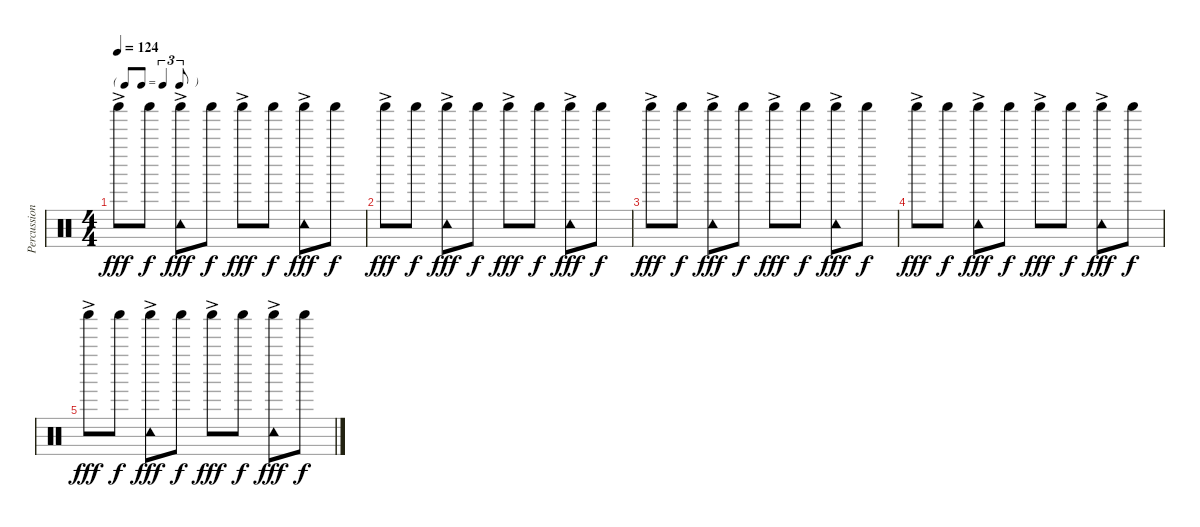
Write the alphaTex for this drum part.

\track ("Percussion" "Percussion") {instrument percussion}
\staff {score}
\articulation defaults
\ts (4 4)
\tf triplet8th
\tempo 124
\clef neutral
\ks c "Shaker (hit)"{ac}.8{dy fff} "Shaker (hit)".8{dy f}
("Tambourine (hit)" "Shaker (hit)"{ac}).8{dy fff} "Shaker (hit)".8{dy f} "Shaker (hit)"{ac}.8{dy fff} "Shaker (hit)".8{dy f} ("Tambourine (hit)" "Shaker (hit)"{ac}).8{dy fff} "Shaker (hit)".8{dy f} |
"Shaker (hit)"{ac}.8{dy fff} "Shaker (hit)".8{dy f} ("Tambourine (hit)" "Shaker (hit)"{ac}).8{dy fff} "Shaker (hit)".8{dy f} "Shaker (hit)"{ac}.8{dy fff} "Shaker (hit)".8{dy f} ("Tambourine (hit)" "Shaker (hit)"{ac}).8{dy fff} "Shaker (hit)".8{dy f} |
"Shaker (hit)"{ac}.8{dy fff} "Shaker (hit)".8{dy f} ("Tambourine (hit)" "Shaker (hit)"{ac}).8{dy fff} "Shaker (hit)".8{dy f} "Shaker (hit)"{ac}.8{dy fff} "Shaker (hit)".8{dy f} ("Tambourine (hit)" "Shaker (hit)"{ac}).8{dy fff} "Shaker (hit)".8{dy f} |
"Shaker (hit)"{ac}.8{dy fff} "Shaker (hit)".8{dy f} ("Tambourine (hit)" "Shaker (hit)"{ac}).8{dy fff} "Shaker (hit)".8{dy f} "Shaker (hit)"{ac}.8{dy fff} "Shaker (hit)".8{dy f} ("Tambourine (hit)" "Shaker (hit)"{ac}).8{dy fff} "Shaker (hit)".8{dy f} |
"Shaker (hit)"{ac}.8{dy fff} "Shaker (hit)".8{dy f} ("Tambourine (hit)" "Shaker (hit)"{ac}).8{dy fff} "Shaker (hit)".8{dy f} "Shaker (hit)"{ac}.8{dy fff} "Shaker (hit)".8{dy f} ("Tambourine (hit)" "Shaker (hit)"{ac}).8{dy fff} "Shaker (hit)".8{dy f}
